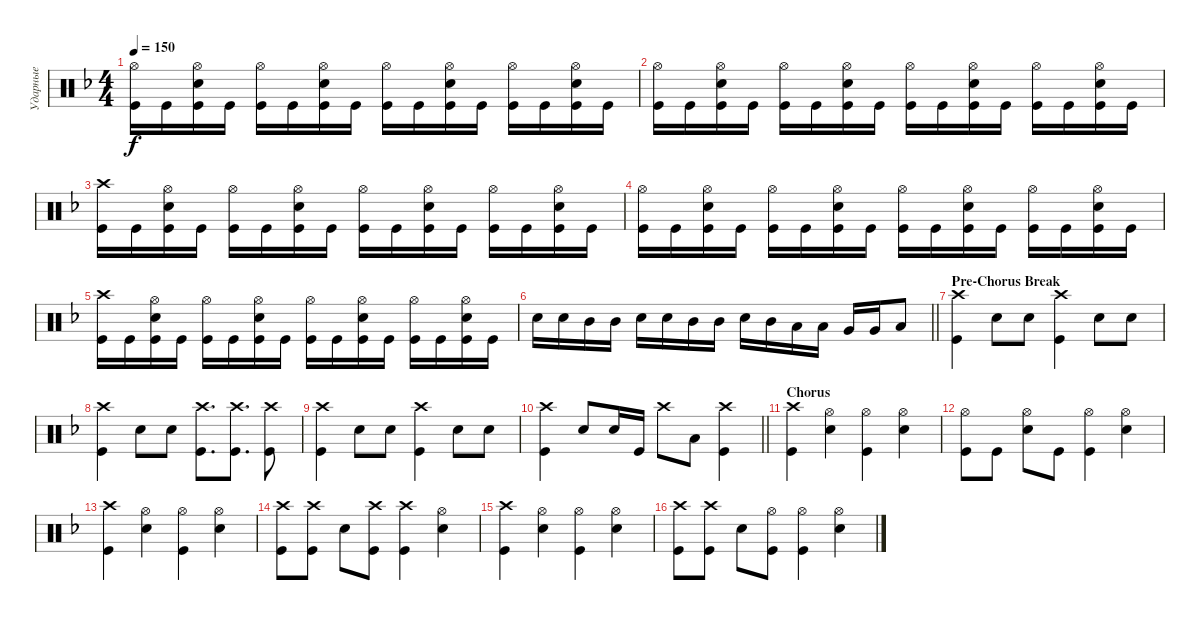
\track ("Ударные" "Ударные") {instrument percussion}
\staff {score}
\articulation defaults
\ts (4 4)
\tempo 150
\clef neutral
\ks dminor
("Kick (hit)" "Hi-Hat (open)").16{dy f} "Kick (hit)".16 ("Kick (hit)" "Snare (hit) 2" "Hi-Hat (open)").16 "Kick (hit)".16 ("Kick (hit)" "Hi-Hat (open)").16 "Kick (hit)".16 ("Kick (hit)" "Snare (hit) 2" "Hi-Hat (open)").16 "Kick (hit)".16 ("Kick (hit)" "Hi-Hat (open)").16 "Kick (hit)".16 ("Snare (hit) 2" "Kick (hit)" "Hi-Hat (open)").16 "Kick (hit)".16 ("Kick (hit)" "Hi-Hat (open)").16 "Kick (hit)".16 ("Kick (hit)" "Snare (hit) 2" "Hi-Hat (open)").16 "Kick (hit)".16 |
("Kick (hit)" "Hi-Hat (open)").16 "Kick (hit)".16 ("Kick (hit)" "Snare (hit) 2" "Hi-Hat (open)").16 "Kick (hit)".16 ("Kick (hit)" "Hi-Hat (open)").16 "Kick (hit)".16 ("Kick (hit)" "Snare (hit) 2" "Hi-Hat (open)").16 "Kick (hit)".16 ("Kick (hit)" "Hi-Hat (open)").16 "Kick (hit)".16 ("Snare (hit) 2" "Kick (hit)" "Hi-Hat (open)").16 "Kick (hit)".16 ("Kick (hit)" "Hi-Hat (open)").16 "Kick (hit)".16 ("Kick (hit)" "Snare (hit) 2" "Hi-Hat (open)").16 "Kick (hit)".16 |
("Kick (hit)" "Crash high (hit)").16 "Kick (hit)".16 ("Kick (hit)" "Snare (hit) 2" "Hi-Hat (open)").16 "Kick (hit)".16 ("Kick (hit)" "Hi-Hat (open)").16 "Kick (hit)".16 ("Kick (hit)" "Snare (hit) 2" "Hi-Hat (open)").16 "Kick (hit)".16 ("Kick (hit)" "Hi-Hat (open)").16 "Kick (hit)".16 ("Snare (hit) 2" "Kick (hit)" "Hi-Hat (open)").16 "Kick (hit)".16 ("Kick (hit)" "Hi-Hat (open)").16 "Kick (hit)".16 ("Kick (hit)" "Snare (hit) 2" "Hi-Hat (open)").16 "Kick (hit)".16 |
("Kick (hit)" "Hi-Hat (open)").16 "Kick (hit)".16 ("Kick (hit)" "Snare (hit) 2" "Hi-Hat (open)").16 "Kick (hit)".16 ("Kick (hit)" "Hi-Hat (open)").16 "Kick (hit)".16 ("Kick (hit)" "Snare (hit) 2" "Hi-Hat (open)").16 "Kick (hit)".16 ("Kick (hit)" "Hi-Hat (open)").16 "Kick (hit)".16 ("Snare (hit) 2" "Kick (hit)" "Hi-Hat (open)").16 "Kick (hit)".16 ("Kick (hit)" "Hi-Hat (open)").16 "Kick (hit)".16 ("Kick (hit)" "Snare (hit) 2" "Hi-Hat (open)").16 "Kick (hit)".16 |
("Kick (hit)" "Crash high (hit)").16 "Kick (hit)".16 ("Kick (hit)" "Snare (hit) 2" "Hi-Hat (open)").16 "Kick (hit)".16 ("Kick (hit)" "Hi-Hat (open)").16 "Kick (hit)".16 ("Kick (hit)" "Snare (hit) 2" "Hi-Hat (open)").16 "Kick (hit)".16 ("Kick (hit)" "Hi-Hat (open)").16 "Kick (hit)".16 ("Snare (hit) 2" "Kick (hit)" "Hi-Hat (open)").16 "Kick (hit)".16 ("Kick (hit)" "Hi-Hat (open)").16 "Kick (hit)".16 ("Kick (hit)" "Snare (hit) 2" "Hi-Hat (open)").16 "Kick (hit)".16 |
\barLineRight lightlight "Snare (hit) 2".16 "Snare (hit) 2".16 "Mid Tom (hit)".16 "Mid Tom (hit)".16 "Snare (hit) 2".16 "Snare (hit) 2".16 "Mid Tom (hit)".16 "Mid Tom (hit)".16 "Snare (hit) 2".16 "Mid Tom (hit)".16 "Low Tom (hit)".16 "Low Tom (hit)".16 "Very Low Tom (hit)".16 "Very Low Tom (hit)".16 "Low Floor Tom (hit)".8
|
\section ("" "Pre-Chorus Break")
("Kick (hit)" "Crash high (hit)").4 "Snare (hit) 2".8 "Snare (hit) 2".8 ("Kick (hit)" "Crash high (hit)").4 "Snare (hit) 2".8 "Snare (hit) 2".8 |
("Kick (hit)" "Crash high (hit)").4 "Snare (hit) 2".8 "Snare (hit) 2".8 ("Kick (hit)" "Crash high (hit)").8{d} ("Kick (hit)" "Crash high (hit)").8{d} ("Kick (hit)" "Crash high (hit)").8 |
("Kick (hit)" "Crash high (hit)").4 "Snare (hit) 2".8 "Snare (hit) 2".8 ("Kick (hit)" "Crash high (hit)").4 "Snare (hit) 2".8 "Snare (hit) 2".8 |
\barLineRight lightlight
("Kick (hit)" "Crash high (hit)").4 "Snare (hit) 2".8 "Snare (hit) 2".16 "Kick (hit)".16 "Crash high (hit)".8 "Low Floor Tom (hit)".8 ("Kick (hit)" "Crash high (hit)").4 |
\section ("" "Chorus")
("Kick (hit)" "Crash high (hit)").4 ("Snare (hit) 2" "Hi-Hat (open)").4 ("Kick (hit)" "Hi-Hat (open)").4 ("Snare (hit) 2" "Hi-Hat (open)").4 |
("Kick (hit)" "Hi-Hat (open)").8 "Kick (hit)".8 ("Snare (hit) 2" "Hi-Hat (open)").8 "Kick (hit)".8 ("Kick (hit)" "Hi-Hat (open)").4 ("Snare (hit) 2" "Hi-Hat (open)").4 |
("Kick (hit)" "Crash high (hit)").4 ("Snare (hit) 2" "Hi-Hat (open)").4 ("Kick (hit)" "Hi-Hat (open)").4 ("Snare (hit) 2" "Hi-Hat (open)").4 |
("Kick (hit)" "Crash high (hit)").8 ("Kick (hit)" "Crash high (hit)").8 "Snare (hit) 2".8 ("Kick (hit)" "Crash high (hit)").8 ("Kick (hit)" "Crash high (hit)").4 ("Snare (hit) 2" "Hi-Hat (open)").4 |
("Kick (hit)" "Crash high (hit)").4 ("Snare (hit) 2" "Hi-Hat (open)").4 ("Kick (hit)" "Hi-Hat (open)").4 ("Snare (hit) 2" "Hi-Hat (open)").4 |
("Kick (hit)" "Crash high (hit)").8 ("Kick (hit)" "Crash high (hit)").8 "Snare (hit) 2".8 ("Kick (hit)" "Hi-Hat (open)").8 ("Kick (hit)" "Hi-Hat (open)").4 ("Snare (hit) 2" "Hi-Hat (open)").4
